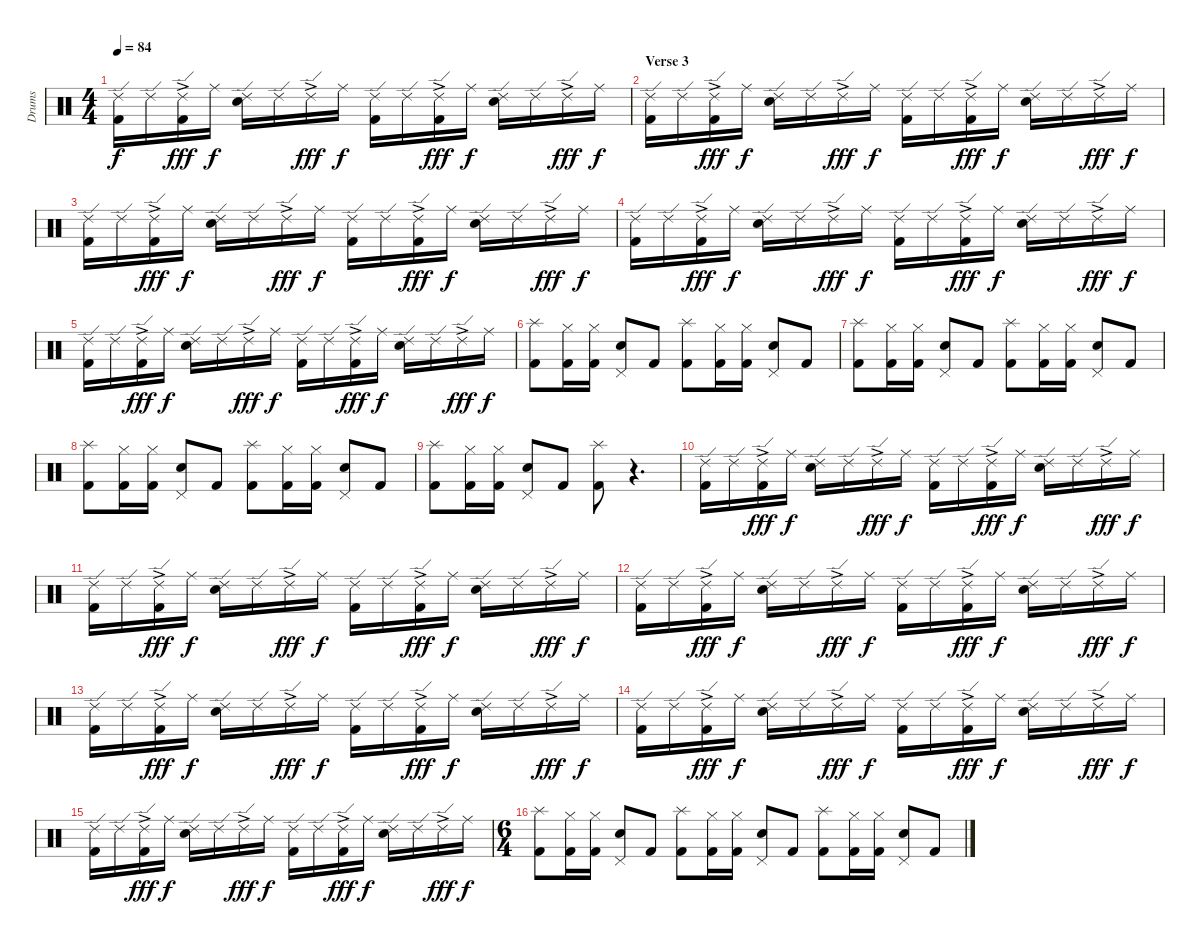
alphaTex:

\track ("Drums" "Drums") {instrument percussion}
\staff {score}
\articulation defaults
\ts (4 4)
\tempo 84
\clef neutral
\ks c
("Ride (edge) 2" "Kick (hit) 2").16{dy f} "Ride (edge) 2".16 ("Ride (edge) 2"{ac} "Kick (hit) 2").16{dy fff} "Ride (middle)".16{dy f} ("Ride (edge) 2" "Snare (hit) 2").16 "Ride (edge) 2".16 "Ride (edge) 2"{ac}.16{dy fff} "Ride (middle)".16{dy f} ("Ride (edge) 2" "Kick (hit) 2").16 "Ride (edge) 2".16 ("Ride (edge) 2"{ac} "Kick (hit) 2").16{dy fff} "Ride (middle)".16{dy f} ("Ride (edge) 2" "Snare (hit) 2").16 "Ride (edge) 2".16 "Ride (edge) 2"{ac}.16{dy fff} "Ride (middle)".16{dy f} |
\section ("" "Verse 3")
("Ride (edge) 2" "Kick (hit) 2").16 "Ride (edge) 2".16 ("Ride (edge) 2"{ac} "Kick (hit) 2").16{dy fff} "Ride (middle)".16{dy f} ("Ride (edge) 2" "Snare (hit) 2").16 "Ride (edge) 2".16 "Ride (edge) 2"{ac}.16{dy fff} "Ride (middle)".16{dy f} ("Ride (edge) 2" "Kick (hit) 2").16 "Ride (edge) 2".16 ("Ride (edge) 2"{ac} "Kick (hit) 2").16{dy fff} "Ride (middle)".16{dy f} ("Ride (edge) 2" "Snare (hit) 2").16 "Ride (edge) 2".16 "Ride (edge) 2"{ac}.16{dy fff} "Ride (middle)".16{dy f} |
("Ride (edge) 2" "Kick (hit) 2").16 "Ride (edge) 2".16 ("Ride (edge) 2"{ac} "Kick (hit) 2").16{dy fff} "Ride (middle)".16{dy f} ("Ride (edge) 2" "Snare (hit) 2").16 "Ride (edge) 2".16 "Ride (edge) 2"{ac}.16{dy fff} "Ride (middle)".16{dy f} ("Ride (edge) 2" "Kick (hit) 2").16 "Ride (edge) 2".16 ("Ride (edge) 2"{ac} "Kick (hit) 2").16{dy fff} "Ride (middle)".16{dy f} ("Ride (edge) 2" "Snare (hit) 2").16 "Ride (edge) 2".16 "Ride (edge) 2"{ac}.16{dy fff} "Ride (middle)".16{dy f} |
("Ride (edge) 2" "Kick (hit) 2").16 "Ride (edge) 2".16 ("Ride (edge) 2"{ac} "Kick (hit) 2").16{dy fff} "Ride (middle)".16{dy f} ("Ride (edge) 2" "Snare (hit) 2").16 "Ride (edge) 2".16 "Ride (edge) 2"{ac}.16{dy fff} "Ride (middle)".16{dy f} ("Ride (edge) 2" "Kick (hit) 2").16 "Ride (edge) 2".16 ("Ride (edge) 2"{ac} "Kick (hit) 2").16{dy fff} "Ride (middle)".16{dy f} ("Ride (edge) 2" "Snare (hit) 2").16 "Ride (edge) 2".16 "Ride (edge) 2"{ac}.16{dy fff} "Ride (middle)".16{dy f} |
("Ride (edge) 2" "Kick (hit) 2").16 "Ride (edge) 2".16 ("Ride (edge) 2"{ac} "Kick (hit) 2").16{dy fff} "Ride (middle)".16{dy f} ("Ride (edge) 2" "Snare (hit) 2").16 "Ride (edge) 2".16 "Ride (edge) 2"{ac}.16{dy fff} "Ride (middle)".16{dy f} ("Ride (edge) 2" "Kick (hit) 2").16 "Ride (edge) 2".16 ("Ride (edge) 2"{ac} "Kick (hit) 2").16{dy fff} "Ride (middle)".16{dy f} ("Ride (edge) 2" "Snare (hit) 2").16 "Ride (edge) 2".16 "Ride (edge) 2"{ac}.16{dy fff} "Ride (middle)".16{dy f} |
("Splash (hit)" "Kick (hit) 2").8 ("Hi-Hat (closed)" "Kick (hit) 2").16 ("Hi-Hat (closed)" "Kick (hit) 2").16 ("Pedal Hi-Hat (hit)" "Snare (hit) 2").8 "Kick (hit) 2".8 ("Splash (hit)" "Kick (hit) 2").8 ("Hi-Hat (closed)" "Kick (hit) 2").16 ("Hi-Hat (closed)" "Kick (hit) 2").16 ("Pedal Hi-Hat (hit)" "Snare (hit) 2").8 "Kick (hit) 2".8 |
("Splash (hit)" "Kick (hit) 2").8 ("Hi-Hat (closed)" "Kick (hit) 2").16 ("Hi-Hat (closed)" "Kick (hit) 2").16 ("Pedal Hi-Hat (hit)" "Snare (hit) 2").8 "Kick (hit) 2".8 ("Splash (hit)" "Kick (hit) 2").8 ("Hi-Hat (closed)" "Kick (hit) 2").16 ("Hi-Hat (closed)" "Kick (hit) 2").16 ("Pedal Hi-Hat (hit)" "Snare (hit) 2").8 "Kick (hit) 2".8 |
("Splash (hit)" "Kick (hit) 2").8 ("Hi-Hat (closed)" "Kick (hit) 2").16 ("Hi-Hat (closed)" "Kick (hit) 2").16 ("Pedal Hi-Hat (hit)" "Snare (hit) 2").8 "Kick (hit) 2".8 ("Splash (hit)" "Kick (hit) 2").8 ("Hi-Hat (closed)" "Kick (hit) 2").16 ("Hi-Hat (closed)" "Kick (hit) 2").16 ("Pedal Hi-Hat (hit)" "Snare (hit) 2").8 "Kick (hit) 2".8 |
("Splash (hit)" "Kick (hit) 2").8 ("Hi-Hat (closed)" "Kick (hit) 2").16 ("Hi-Hat (closed)" "Kick (hit) 2").16 ("Pedal Hi-Hat (hit)" "Snare (hit) 2").8 "Kick (hit) 2".8 ("Splash (hit)" "Kick (hit) 2").8 r.4{d} |
("Ride (edge) 2" "Kick (hit) 2").16 "Ride (edge) 2".16 ("Ride (edge) 2"{ac} "Kick (hit) 2").16{dy fff} "Ride (middle)".16{dy f} ("Ride (edge) 2" "Snare (hit) 2").16 "Ride (edge) 2".16 "Ride (edge) 2"{ac}.16{dy fff} "Ride (middle)".16{dy f} ("Ride (edge) 2" "Kick (hit) 2").16 "Ride (edge) 2".16 ("Ride (edge) 2"{ac} "Kick (hit) 2").16{dy fff} "Ride (middle)".16{dy f} ("Ride (edge) 2" "Snare (hit) 2").16 "Ride (edge) 2".16 "Ride (edge) 2"{ac}.16{dy fff} "Ride (middle)".16{dy f} |
("Ride (edge) 2" "Kick (hit) 2").16 "Ride (edge) 2".16 ("Ride (edge) 2"{ac} "Kick (hit) 2").16{dy fff} "Ride (middle)".16{dy f} ("Ride (edge) 2" "Snare (hit) 2").16 "Ride (edge) 2".16 "Ride (edge) 2"{ac}.16{dy fff} "Ride (middle)".16{dy f} ("Ride (edge) 2" "Kick (hit) 2").16 "Ride (edge) 2".16 ("Ride (edge) 2"{ac} "Kick (hit) 2").16{dy fff} "Ride (middle)".16{dy f} ("Ride (edge) 2" "Snare (hit) 2").16 "Ride (edge) 2".16 "Ride (edge) 2"{ac}.16{dy fff} "Ride (middle)".16{dy f} |
("Ride (edge) 2" "Kick (hit) 2").16 "Ride (edge) 2".16 ("Ride (edge) 2"{ac} "Kick (hit) 2").16{dy fff} "Ride (middle)".16{dy f} ("Ride (edge) 2" "Snare (hit) 2").16 "Ride (edge) 2".16 "Ride (edge) 2"{ac}.16{dy fff} "Ride (middle)".16{dy f} ("Ride (edge) 2" "Kick (hit) 2").16 "Ride (edge) 2".16 ("Ride (edge) 2"{ac} "Kick (hit) 2").16{dy fff} "Ride (middle)".16{dy f} ("Ride (edge) 2" "Snare (hit) 2").16 "Ride (edge) 2".16 "Ride (edge) 2"{ac}.16{dy fff} "Ride (middle)".16{dy f} |
("Ride (edge) 2" "Kick (hit) 2").16 "Ride (edge) 2".16 ("Ride (edge) 2"{ac} "Kick (hit) 2").16{dy fff} "Ride (middle)".16{dy f} ("Ride (edge) 2" "Snare (hit) 2").16 "Ride (edge) 2".16 "Ride (edge) 2"{ac}.16{dy fff} "Ride (middle)".16{dy f} ("Ride (edge) 2" "Kick (hit) 2").16 "Ride (edge) 2".16 ("Ride (edge) 2"{ac} "Kick (hit) 2").16{dy fff} "Ride (middle)".16{dy f} ("Ride (edge) 2" "Snare (hit) 2").16 "Ride (edge) 2".16 "Ride (edge) 2"{ac}.16{dy fff} "Ride (middle)".16{dy f} |
("Ride (edge) 2" "Kick (hit) 2").16 "Ride (edge) 2".16 ("Ride (edge) 2"{ac} "Kick (hit) 2").16{dy fff} "Ride (middle)".16{dy f} ("Ride (edge) 2" "Snare (hit) 2").16 "Ride (edge) 2".16 "Ride (edge) 2"{ac}.16{dy fff} "Ride (middle)".16{dy f} ("Ride (edge) 2" "Kick (hit) 2").16 "Ride (edge) 2".16 ("Ride (edge) 2"{ac} "Kick (hit) 2").16{dy fff} "Ride (middle)".16{dy f} ("Ride (edge) 2" "Snare (hit) 2").16 "Ride (edge) 2".16 "Ride (edge) 2"{ac}.16{dy fff} "Ride (middle)".16{dy f} |
("Ride (edge) 2" "Kick (hit) 2").16 "Ride (edge) 2".16 ("Ride (edge) 2"{ac} "Kick (hit) 2").16{dy fff} "Ride (middle)".16{dy f} ("Ride (edge) 2" "Snare (hit) 2").16 "Ride (edge) 2".16 "Ride (edge) 2"{ac}.16{dy fff} "Ride (middle)".16{dy f} ("Ride (edge) 2" "Kick (hit) 2").16 "Ride (edge) 2".16 ("Ride (edge) 2"{ac} "Kick (hit) 2").16{dy fff} "Ride (middle)".16{dy f} ("Ride (edge) 2" "Snare (hit) 2").16 "Ride (edge) 2".16 "Ride (edge) 2"{ac}.16{dy fff} "Ride (middle)".16{dy f} |
\ts (6 4)
("Splash (hit)" "Kick (hit) 2").8 ("Hi-Hat (closed)" "Kick (hit) 2").16 ("Hi-Hat (closed)" "Kick (hit) 2").16 ("Pedal Hi-Hat (hit)" "Snare (hit) 2").8 "Kick (hit) 2".8 ("Splash (hit)" "Kick (hit) 2").8 ("Hi-Hat (closed)" "Kick (hit) 2").16 ("Hi-Hat (closed)" "Kick (hit) 2").16 ("Pedal Hi-Hat (hit)" "Snare (hit) 2").8 "Kick (hit) 2".8 ("Splash (hit)" "Kick (hit) 2").8 ("Hi-Hat (closed)" "Kick (hit) 2").16 ("Hi-Hat (closed)" "Kick (hit) 2").16 ("Pedal Hi-Hat (hit)" "Snare (hit) 2").8 "Kick (hit) 2".8
